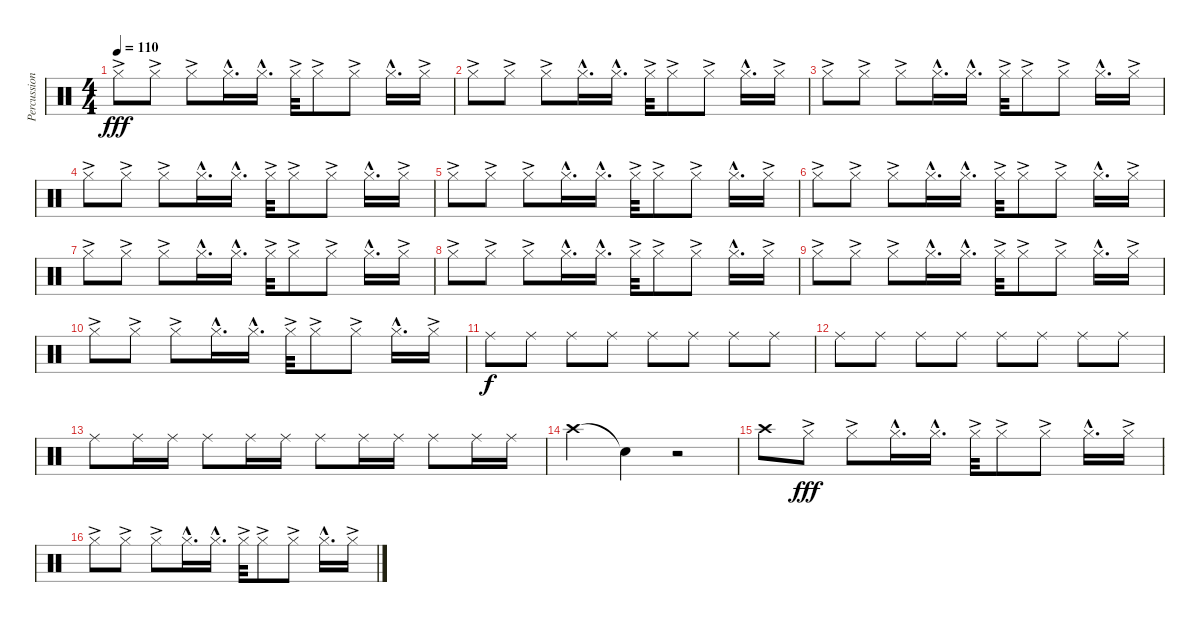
\track ("Percussion" "Percussion") {instrument percussion}
\staff {score}
\articulation defaults
\ts (4 4)
\tempo 110
\clef neutral
\ks c "Hi-Hat (closed)"{ac}.8{dy fff} "Hi-Hat (closed)"{ac}.8 "Hi-Hat (closed)"{ac}.8 "Hi-Hat (closed)"{hac}.16{d} "Hi-Hat (closed)"{hac}.16{d} "Hi-Hat (closed)"{ac}.32 "Hi-Hat (closed)"{ac}.8 "Hi-Hat (closed)"{ac}.8 "Hi-Hat (closed)"{hac}.16{d} "Hi-Hat (closed)"{ac}.16
|
"Hi-Hat (closed)"{ac}.8 "Hi-Hat (closed)"{ac}.8 "Hi-Hat (closed)"{ac}.8 "Hi-Hat (closed)"{hac}.16{d} "Hi-Hat (closed)"{hac}.16{d} "Hi-Hat (closed)"{ac}.32 "Hi-Hat (closed)"{ac}.8 "Hi-Hat (closed)"{ac}.8 "Hi-Hat (closed)"{hac}.16{d} "Hi-Hat (closed)"{ac}.16 |
"Hi-Hat (closed)"{ac}.8 "Hi-Hat (closed)"{ac}.8 "Hi-Hat (closed)"{ac}.8 "Hi-Hat (closed)"{hac}.16{d} "Hi-Hat (closed)"{hac}.16{d} "Hi-Hat (closed)"{ac}.32 "Hi-Hat (closed)"{ac}.8 "Hi-Hat (closed)"{ac}.8 "Hi-Hat (closed)"{hac}.16{d} "Hi-Hat (closed)"{ac}.16 |
"Hi-Hat (closed)"{ac}.8 "Hi-Hat (closed)"{ac}.8 "Hi-Hat (closed)"{ac}.8 "Hi-Hat (closed)"{hac}.16{d} "Hi-Hat (closed)"{hac}.16{d} "Hi-Hat (closed)"{ac}.32 "Hi-Hat (closed)"{ac}.8 "Hi-Hat (closed)"{ac}.8 "Hi-Hat (closed)"{hac}.16{d} "Hi-Hat (closed)"{ac}.16 |
"Hi-Hat (closed)"{ac}.8 "Hi-Hat (closed)"{ac}.8 "Hi-Hat (closed)"{ac}.8 "Hi-Hat (closed)"{hac}.16{d} "Hi-Hat (closed)"{hac}.16{d} "Hi-Hat (closed)"{ac}.32 "Hi-Hat (closed)"{ac}.8 "Hi-Hat (closed)"{ac}.8 "Hi-Hat (closed)"{hac}.16{d} "Hi-Hat (closed)"{ac}.16 |
"Hi-Hat (closed)"{ac}.8 "Hi-Hat (closed)"{ac}.8 "Hi-Hat (closed)"{ac}.8 "Hi-Hat (closed)"{hac}.16{d} "Hi-Hat (closed)"{hac}.16{d} "Hi-Hat (closed)"{ac}.32 "Hi-Hat (closed)"{ac}.8 "Hi-Hat (closed)"{ac}.8 "Hi-Hat (closed)"{hac}.16{d} "Hi-Hat (closed)"{ac}.16 |
"Hi-Hat (closed)"{ac}.8 "Hi-Hat (closed)"{ac}.8 "Hi-Hat (closed)"{ac}.8 "Hi-Hat (closed)"{hac}.16{d} "Hi-Hat (closed)"{hac}.16{d} "Hi-Hat (closed)"{ac}.32 "Hi-Hat (closed)"{ac}.8 "Hi-Hat (closed)"{ac}.8 "Hi-Hat (closed)"{hac}.16{d} "Hi-Hat (closed)"{ac}.16 |
"Hi-Hat (closed)"{ac}.8 "Hi-Hat (closed)"{ac}.8 "Hi-Hat (closed)"{ac}.8 "Hi-Hat (closed)"{hac}.16{d} "Hi-Hat (closed)"{hac}.16{d} "Hi-Hat (closed)"{ac}.32 "Hi-Hat (closed)"{ac}.8 "Hi-Hat (closed)"{ac}.8 "Hi-Hat (closed)"{hac}.16{d} "Hi-Hat (closed)"{ac}.16 |
"Hi-Hat (closed)"{ac}.8 "Hi-Hat (closed)"{ac}.8 "Hi-Hat (closed)"{ac}.8 "Hi-Hat (closed)"{hac}.16{d} "Hi-Hat (closed)"{hac}.16{d} "Hi-Hat (closed)"{ac}.32 "Hi-Hat (closed)"{ac}.8 "Hi-Hat (closed)"{ac}.8 "Hi-Hat (closed)"{hac}.16{d} "Hi-Hat (closed)"{ac}.16 |
"Hi-Hat (closed)"{ac}.8 "Hi-Hat (closed)"{ac}.8 "Hi-Hat (closed)"{ac}.8 "Hi-Hat (closed)"{hac}.16{d} "Hi-Hat (closed)"{hac}.16{d} "Hi-Hat (closed)"{ac}.32 "Hi-Hat (closed)"{ac}.8 "Hi-Hat (closed)"{ac}.8 "Hi-Hat (closed)"{hac}.16{d} "Hi-Hat (closed)"{ac}.16 |
"Ride (middle)".8{dy f} "Ride (middle)".8 "Ride (middle)".8 "Ride (middle)".8 "Ride (middle)".8 "Ride (middle)".8 "Ride (middle)".8 "Ride (middle)".8 |
"Ride (middle)".8 "Ride (middle)".8 "Ride (middle)".8 "Ride (middle)".8 "Ride (middle)".8 "Ride (middle)".8 "Ride (middle)".8 "Ride (middle)".8 |
"Ride (middle)".8 "Ride (middle)".16 "Ride (middle)".16 "Ride (middle)".8 "Ride (middle)".16 "Ride (middle)".16 "Ride (middle)".8 "Ride (middle)".16 "Ride (middle)".16 "Ride (middle)".8 "Ride (middle)".16 "Ride (middle)".16 |
"Crash high (hit)".4 "Snare (hit)"{t}.4 r.2 |
"Crash high (hit)".8 "Hi-Hat (closed)"{ac}.8{dy fff} "Hi-Hat (closed)"{ac}.8 "Hi-Hat (closed)"{hac}.16{d} "Hi-Hat (closed)"{hac}.16{d} "Hi-Hat (closed)"{ac}.32 "Hi-Hat (closed)"{ac}.8 "Hi-Hat (closed)"{ac}.8 "Hi-Hat (closed)"{hac}.16{d} "Hi-Hat (closed)"{ac}.16 |
"Hi-Hat (closed)"{ac}.8 "Hi-Hat (closed)"{ac}.8 "Hi-Hat (closed)"{ac}.8 "Hi-Hat (closed)"{hac}.16{d} "Hi-Hat (closed)"{hac}.16{d} "Hi-Hat (closed)"{ac}.32 "Hi-Hat (closed)"{ac}.8 "Hi-Hat (closed)"{ac}.8 "Hi-Hat (closed)"{hac}.16{d} "Hi-Hat (closed)"{ac}.16
